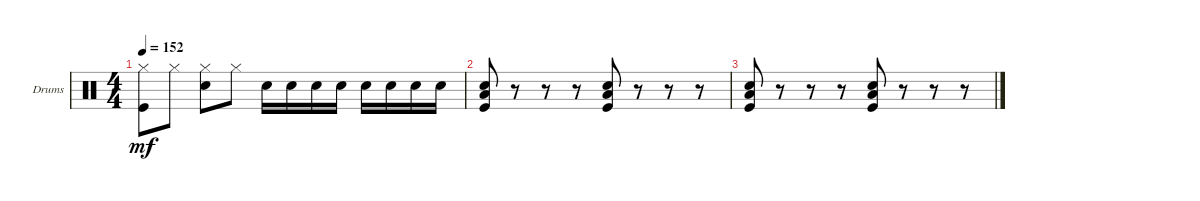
\defaultSystemsLayout 4
\bracketExtendMode groupsimilarinstruments
\firstSystemTrackNameOrientation horizontal
\otherSystemsTrackNameOrientation horizontal
\track ("Drumkit" "Drums") {instrument percussion}
\staff {score}
\articulation defaults
\ts (4 4)
\tempo 152
\clef neutral
\ks c
("Kick (hit)" "Hi-Hat (closed)").8{dy mf} "Hi-Hat (closed)".8 ("Snare (hit) 2" "Hi-Hat (closed)").8 "Hi-Hat (closed)".8 "Snare (hit) 2".16 "Snare (hit) 2".16 "Snare (hit) 2".16 "Snare (hit) 2".16 "Snare (hit) 2".16 "Snare (hit) 2".16 "Snare (hit) 2".16 "Snare (hit) 2".16 |
("Kick (hit)" "Low Tom (hit)" "Snare (hit) 2").8 r.8 r.8 r.8 ("Kick (hit)" "Snare (hit) 2" "Low Tom (hit)").8 r.8 r.8 r.8 |
("Kick (hit)" "Low Tom (hit)" "Snare (hit) 2").8 r.8 r.8 r.8 ("Kick (hit)" "Snare (hit) 2" "Low Tom (hit)").8 r.8 r.8 r.8
